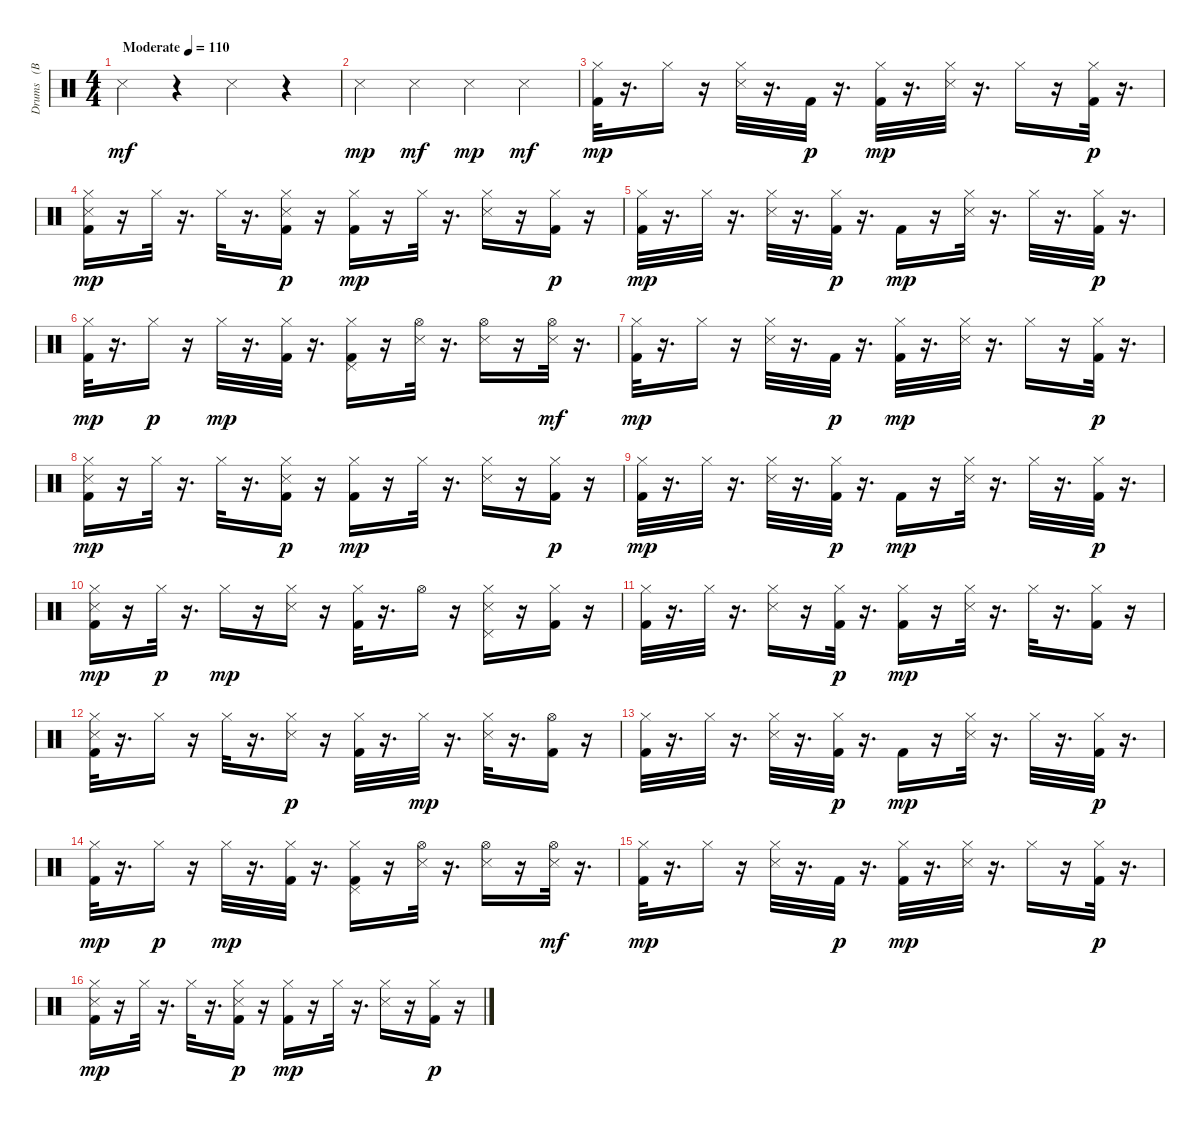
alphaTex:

\track ("Drums   (BB)" "Drums   (B") {instrument percussion}
\staff {score}
\articulation defaults
\ts (4 4)
\tempo (110 "Moderate")
\clef neutral
\ks c "Snare (side stick) 3".4{dy mf}
r.4 "Snare (side stick) 3".4 r.4 |
"Snare (side stick) 3".4{dy mp} "Snare (side stick) 3".4{dy mf} "Snare (side stick) 3".4{dy mp} "Snare (side stick) 3".4{dy mf} |
("Kick (hit) 2" "Hi-Hat (closed)").32{dy mp} r.16{d} "Hi-Hat (closed)".16 r.16 ("Hi-Hat (closed)" "Snare (side stick) 3").32 r.16{d} "Kick (hit) 2".32{dy p} r.16{d} ("Kick (hit) 2" "Hi-Hat (closed)").32{dy mp} r.16{d} ("Snare (side stick) 3" "Hi-Hat (closed)").32 r.16{d} "Hi-Hat (closed)".16 r.16 ("Hi-Hat (closed)" "Kick (hit) 2").32{dy p} r.16{d} |
("Kick (hit) 2" "Snare (side stick) 3" "Hi-Hat (closed)").16{dy mp} r.16 "Hi-Hat (closed)".32 r.16{d} "Hi-Hat (closed)".32 r.16{d} ("Snare (side stick) 3" "Hi-Hat (closed)" "Kick (hit) 2").16{dy p} r.16 ("Hi-Hat (closed)" "Kick (hit) 2").16{dy mp} r.16 "Hi-Hat (closed)".32 r.16{d} ("Snare (side stick) 3" "Hi-Hat (closed)").16 r.16 ("Hi-Hat (closed)" "Kick (hit) 2").16{dy p} r.16 |
("Kick (hit) 2" "Hi-Hat (closed)").32{dy mp} r.16{d} "Hi-Hat (closed)".32 r.16{d} ("Snare (side stick) 3" "Hi-Hat (closed)").32 r.16{d} ("Hi-Hat (closed)" "Kick (hit) 2").32{dy p} r.16{d} "Kick (hit) 2".16{dy mp} r.16 ("Snare (side stick) 3" "Hi-Hat (closed)").32 r.16{d} "Hi-Hat (closed)".32 r.16{d} ("Hi-Hat (closed)" "Kick (hit) 2").32{dy p} r.16{d} |
("Hi-Hat (closed)" "Kick (hit) 2").32{dy mp} r.16{d} "Hi-Hat (closed)".16{dy p} r.16 "Hi-Hat (closed)".32{dy mp} r.16{d} ("Kick (hit) 2" "Hi-Hat (closed)").32 r.16{d} ("Pedal Hi-Hat (hit)" "Kick (hit) 2" "Hi-Hat (closed)").16 r.16 ("Hi-Hat (open)" "Snare (side stick) 3").32 r.16{d} ("Hi-Hat (open)" "Snare (side stick) 3").16 r.16 ("Hi-Hat (open)" "Snare (side stick) 3").32{dy mf} r.16{d} |
("Kick (hit) 2" "Hi-Hat (closed)").32{dy mp} r.16{d} "Hi-Hat (closed)".16 r.16 ("Hi-Hat (closed)" "Snare (side stick) 3").32 r.16{d} "Kick (hit) 2".32{dy p} r.16{d} ("Kick (hit) 2" "Hi-Hat (closed)").32{dy mp} r.16{d} ("Snare (side stick) 3" "Hi-Hat (closed)").32 r.16{d} "Hi-Hat (closed)".16 r.16 ("Hi-Hat (closed)" "Kick (hit) 2").32{dy p} r.16{d} |
("Kick (hit) 2" "Snare (side stick) 3" "Hi-Hat (closed)").16{dy mp} r.16 "Hi-Hat (closed)".32 r.16{d} "Hi-Hat (closed)".32 r.16{d} ("Snare (side stick) 3" "Hi-Hat (closed)" "Kick (hit) 2").16{dy p} r.16 ("Hi-Hat (closed)" "Kick (hit) 2").16{dy mp} r.16 "Hi-Hat (closed)".32 r.16{d} ("Snare (side stick) 3" "Hi-Hat (closed)").16 r.16 ("Hi-Hat (closed)" "Kick (hit) 2").16{dy p} r.16 |
("Kick (hit) 2" "Hi-Hat (closed)").32{dy mp} r.16{d} "Hi-Hat (closed)".32 r.16{d} ("Snare (side stick) 3" "Hi-Hat (closed)").32 r.16{d} ("Hi-Hat (closed)" "Kick (hit) 2").32{dy p} r.16{d} "Kick (hit) 2".16{dy mp} r.16 ("Snare (side stick) 3" "Hi-Hat (closed)").32 r.16{d} "Hi-Hat (closed)".32 r.16{d} ("Hi-Hat (closed)" "Kick (hit) 2").32{dy p} r.16{d} |
("Kick (hit) 2" "Snare (side stick) 3" "Hi-Hat (closed)").16{dy mp} r.16 "Hi-Hat (closed)".32{dy p} r.16{d} "Hi-Hat (closed)".16{dy mp} r.16 ("Snare (side stick) 3" "Hi-Hat (closed)").16 r.16 ("Hi-Hat (closed)" "Kick (hit) 2").32 r.16{d} "Hi-Hat (open)".16 r.16 ("Pedal Hi-Hat (hit)" "Snare (side stick) 3" "Hi-Hat (closed)").16 r.16 ("Kick (hit) 2" "Hi-Hat (closed)").16 r.16 |
("Kick (hit) 2" "Hi-Hat (closed)").32 r.16{d} "Hi-Hat (closed)".32 r.16{d} ("Snare (side stick) 3" "Hi-Hat (closed)").16 r.16 ("Hi-Hat (closed)" "Kick (hit) 2").32{dy p} r.16{d} ("Kick (hit) 2" "Hi-Hat (closed)").16{dy mp} r.16 ("Snare (side stick) 3" "Hi-Hat (closed)").32 r.16{d} "Hi-Hat (closed)".32 r.16{d} ("Kick (hit) 2" "Hi-Hat (closed)").16 r.16 |
("Kick (hit) 2" "Snare (side stick) 3" "Hi-Hat (closed)").32 r.16{d} "Hi-Hat (closed)".16 r.16 "Hi-Hat (closed)".32 r.16{d} ("Hi-Hat (closed)" "Snare (side stick) 3").16{dy p} r.16 ("Hi-Hat (closed)" "Kick (hit) 2").32 r.16{d} "Hi-Hat (closed)".32{dy mp} r.16{d} ("Snare (side stick) 3" "Hi-Hat (closed)").32 r.16{d} ("Kick (hit) 2" "Hi-Hat (open)").16 r.16 |
("Kick (hit) 2" "Hi-Hat (closed)").32 r.16{d} "Hi-Hat (closed)".32 r.16{d} ("Snare (side stick) 3" "Hi-Hat (closed)").32 r.16{d} ("Hi-Hat (closed)" "Kick (hit) 2").32{dy p} r.16{d} "Kick (hit) 2".16{dy mp} r.16 ("Snare (side stick) 3" "Hi-Hat (closed)").32 r.16{d} "Hi-Hat (closed)".32 r.16{d} ("Hi-Hat (closed)" "Kick (hit) 2").32{dy p} r.16{d} |
("Hi-Hat (closed)" "Kick (hit) 2").32{dy mp} r.16{d} "Hi-Hat (closed)".16{dy p} r.16 "Hi-Hat (closed)".32{dy mp} r.16{d} ("Kick (hit) 2" "Hi-Hat (closed)").32 r.16{d} ("Pedal Hi-Hat (hit)" "Kick (hit) 2" "Hi-Hat (closed)").16 r.16 ("Hi-Hat (open)" "Snare (side stick) 3").32 r.16{d} ("Hi-Hat (open)" "Snare (side stick) 3").16 r.16 ("Hi-Hat (open)" "Snare (side stick) 3").32{dy mf} r.16{d} |
("Kick (hit) 2" "Hi-Hat (closed)").32{dy mp} r.16{d} "Hi-Hat (closed)".16 r.16 ("Hi-Hat (closed)" "Snare (side stick) 3").32 r.16{d} "Kick (hit) 2".32{dy p} r.16{d} ("Kick (hit) 2" "Hi-Hat (closed)").32{dy mp} r.16{d} ("Snare (side stick) 3" "Hi-Hat (closed)").32 r.16{d} "Hi-Hat (closed)".16 r.16 ("Hi-Hat (closed)" "Kick (hit) 2").32{dy p} r.16{d} |
("Kick (hit) 2" "Snare (side stick) 3" "Hi-Hat (closed)").16{dy mp} r.16 "Hi-Hat (closed)".32 r.16{d} "Hi-Hat (closed)".32 r.16{d} ("Snare (side stick) 3" "Hi-Hat (closed)" "Kick (hit) 2").16{dy p} r.16 ("Hi-Hat (closed)" "Kick (hit) 2").16{dy mp} r.16 "Hi-Hat (closed)".32 r.16{d} ("Snare (side stick) 3" "Hi-Hat (closed)").16 r.16 ("Hi-Hat (closed)" "Kick (hit) 2").16{dy p} r.16
